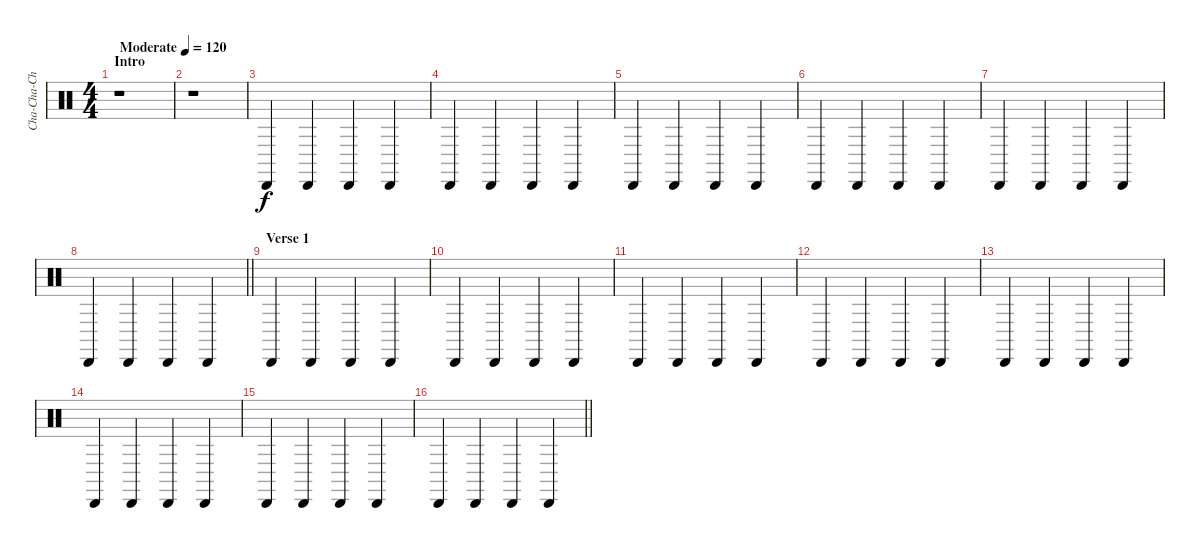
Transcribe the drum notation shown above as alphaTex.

\track ("Cha-Cha-Cha's" "Cha-Cha-Ch") {instrument percussion}
\staff {score}
\articulation defaults
\ts (4 4)
\section ("" "Intro")
\tempo (120 "Moderate")
\clef neutral
\ks c
r.1{dy f} |
r.1 |
"Cabasa (hit)".4 "Cabasa (hit)".4 "Cabasa (hit)".4 "Cabasa (hit)".4 |
"Cabasa (hit)".4 "Cabasa (hit)".4 "Cabasa (hit)".4 "Cabasa (hit)".4 |
"Cabasa (hit)".4 "Cabasa (hit)".4 "Cabasa (hit)".4 "Cabasa (hit)".4 |
"Cabasa (hit)".4 "Cabasa (hit)".4 "Cabasa (hit)".4 "Cabasa (hit)".4 |
"Cabasa (hit)".4 "Cabasa (hit)".4 "Cabasa (hit)".4 "Cabasa (hit)".4 |
\barLineRight lightlight "Cabasa (hit)".4 "Cabasa (hit)".4 "Cabasa (hit)".4 "Cabasa (hit)".4
|
\section ("" "Verse 1")
"Cabasa (hit)".4 "Cabasa (hit)".4 "Cabasa (hit)".4 "Cabasa (hit)".4 |
"Cabasa (hit)".4 "Cabasa (hit)".4 "Cabasa (hit)".4 "Cabasa (hit)".4 |
"Cabasa (hit)".4 "Cabasa (hit)".4 "Cabasa (hit)".4 "Cabasa (hit)".4 |
"Cabasa (hit)".4 "Cabasa (hit)".4 "Cabasa (hit)".4 "Cabasa (hit)".4 |
"Cabasa (hit)".4 "Cabasa (hit)".4 "Cabasa (hit)".4 "Cabasa (hit)".4 |
"Cabasa (hit)".4 "Cabasa (hit)".4 "Cabasa (hit)".4 "Cabasa (hit)".4 |
"Cabasa (hit)".4 "Cabasa (hit)".4 "Cabasa (hit)".4 "Cabasa (hit)".4 |
\barLineRight lightlight "Cabasa (hit)".4 "Cabasa (hit)".4 "Cabasa (hit)".4 "Cabasa (hit)".4
